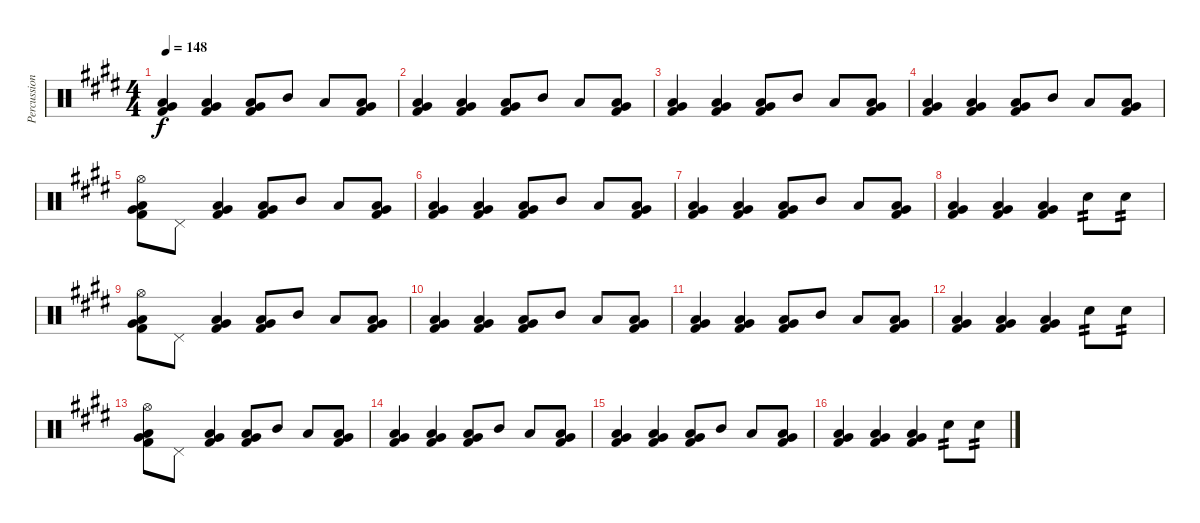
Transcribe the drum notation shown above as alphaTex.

\track ("Percussion" "Percussion") {instrument percussion}
\staff {score}
\articulation defaults
\ts (4 4)
\tempo 148
\clef neutral
\ks e
("Low Floor Tom (hit)" "Very Low Tom (hit)" "Kick (hit) 2").4{dy f} ("Low Floor Tom (hit)" "Very Low Tom (hit)" "Kick (hit) 2").4 ("Low Floor Tom (hit)" "Very Low Tom (hit)" "Kick (hit) 2").8 "Mid Tom (hit)".8 "Low Tom (hit)".8 ("Low Floor Tom (hit)" "Very Low Tom (hit)" "Kick (hit) 2").8 |
("Low Floor Tom (hit)" "Very Low Tom (hit)" "Kick (hit) 2").4 ("Low Floor Tom (hit)" "Very Low Tom (hit)" "Kick (hit) 2").4 ("Low Floor Tom (hit)" "Very Low Tom (hit)" "Kick (hit) 2").8 "Mid Tom (hit)".8 "Low Tom (hit)".8 ("Low Floor Tom (hit)" "Very Low Tom (hit)" "Kick (hit) 2").8 |
("Low Floor Tom (hit)" "Very Low Tom (hit)" "Kick (hit) 2").4 ("Low Floor Tom (hit)" "Very Low Tom (hit)" "Kick (hit) 2").4 ("Low Floor Tom (hit)" "Very Low Tom (hit)" "Kick (hit) 2").8 "Mid Tom (hit)".8 "Low Tom (hit)".8 ("Low Floor Tom (hit)" "Very Low Tom (hit)" "Kick (hit) 2").8 |
("Low Floor Tom (hit)" "Very Low Tom (hit)" "Kick (hit) 2").4 ("Low Floor Tom (hit)" "Very Low Tom (hit)" "Kick (hit) 2").4 ("Low Floor Tom (hit)" "Very Low Tom (hit)" "Kick (hit) 2").8 "Mid Tom (hit)".8 "Low Tom (hit)".8 ("Low Floor Tom (hit)" "Very Low Tom (hit)" "Kick (hit) 2").8 |
("Hi-Hat (open)" "Low Floor Tom (hit)" "Very Low Tom (hit)" "Kick (hit) 2").8 "Pedal Hi-Hat (hit)".8 ("Low Floor Tom (hit)" "Very Low Tom (hit)" "Kick (hit) 2").4 ("Low Floor Tom (hit)" "Very Low Tom (hit)" "Kick (hit) 2").8 "Mid Tom (hit)".8 "Low Tom (hit)".8 ("Low Floor Tom (hit)" "Very Low Tom (hit)" "Kick (hit) 2").8 |
("Low Floor Tom (hit)" "Very Low Tom (hit)" "Kick (hit) 2").4 ("Low Floor Tom (hit)" "Very Low Tom (hit)" "Kick (hit) 2").4 ("Low Floor Tom (hit)" "Very Low Tom (hit)" "Kick (hit) 2").8 "Mid Tom (hit)".8 "Low Tom (hit)".8 ("Low Floor Tom (hit)" "Very Low Tom (hit)" "Kick (hit) 2").8 |
("Low Floor Tom (hit)" "Very Low Tom (hit)" "Kick (hit) 2").4 ("Low Floor Tom (hit)" "Very Low Tom (hit)" "Kick (hit) 2").4 ("Low Floor Tom (hit)" "Very Low Tom (hit)" "Kick (hit) 2").8 "Mid Tom (hit)".8 "Low Tom (hit)".8 ("Low Floor Tom (hit)" "Very Low Tom (hit)" "Kick (hit) 2").8 |
("Low Floor Tom (hit)" "Very Low Tom (hit)" "Kick (hit) 2").4 ("Low Floor Tom (hit)" "Very Low Tom (hit)" "Kick (hit) 2").4 ("Low Floor Tom (hit)" "Very Low Tom (hit)" "Kick (hit) 2").4 "Snare (hit) 2".8{tp 2} "Snare (hit) 2".8{tp 2} |
("Hi-Hat (open)" "Low Floor Tom (hit)" "Very Low Tom (hit)" "Kick (hit) 2").8 "Pedal Hi-Hat (hit)".8 ("Low Floor Tom (hit)" "Very Low Tom (hit)" "Kick (hit) 2").4 ("Low Floor Tom (hit)" "Very Low Tom (hit)" "Kick (hit) 2").8 "Mid Tom (hit)".8 "Low Tom (hit)".8 ("Low Floor Tom (hit)" "Very Low Tom (hit)" "Kick (hit) 2").8 |
("Low Floor Tom (hit)" "Very Low Tom (hit)" "Kick (hit) 2").4 ("Low Floor Tom (hit)" "Very Low Tom (hit)" "Kick (hit) 2").4 ("Low Floor Tom (hit)" "Very Low Tom (hit)" "Kick (hit) 2").8 "Mid Tom (hit)".8 "Low Tom (hit)".8 ("Low Floor Tom (hit)" "Very Low Tom (hit)" "Kick (hit) 2").8 |
("Low Floor Tom (hit)" "Very Low Tom (hit)" "Kick (hit) 2").4 ("Low Floor Tom (hit)" "Very Low Tom (hit)" "Kick (hit) 2").4 ("Low Floor Tom (hit)" "Very Low Tom (hit)" "Kick (hit) 2").8 "Mid Tom (hit)".8 "Low Tom (hit)".8 ("Low Floor Tom (hit)" "Very Low Tom (hit)" "Kick (hit) 2").8 |
("Low Floor Tom (hit)" "Very Low Tom (hit)" "Kick (hit) 2").4 ("Low Floor Tom (hit)" "Very Low Tom (hit)" "Kick (hit) 2").4 ("Low Floor Tom (hit)" "Very Low Tom (hit)" "Kick (hit) 2").4 "Snare (hit) 2".8{tp 2} "Snare (hit) 2".8{tp 2} |
("Hi-Hat (open)" "Low Floor Tom (hit)" "Very Low Tom (hit)" "Kick (hit) 2").8 "Pedal Hi-Hat (hit)".8 ("Low Floor Tom (hit)" "Very Low Tom (hit)" "Kick (hit) 2").4 ("Low Floor Tom (hit)" "Very Low Tom (hit)" "Kick (hit) 2").8 "Mid Tom (hit)".8 "Low Tom (hit)".8 ("Low Floor Tom (hit)" "Very Low Tom (hit)" "Kick (hit) 2").8 |
("Low Floor Tom (hit)" "Very Low Tom (hit)" "Kick (hit) 2").4 ("Low Floor Tom (hit)" "Very Low Tom (hit)" "Kick (hit) 2").4 ("Low Floor Tom (hit)" "Very Low Tom (hit)" "Kick (hit) 2").8 "Mid Tom (hit)".8 "Low Tom (hit)".8 ("Low Floor Tom (hit)" "Very Low Tom (hit)" "Kick (hit) 2").8 |
("Low Floor Tom (hit)" "Very Low Tom (hit)" "Kick (hit) 2").4 ("Low Floor Tom (hit)" "Very Low Tom (hit)" "Kick (hit) 2").4 ("Low Floor Tom (hit)" "Very Low Tom (hit)" "Kick (hit) 2").8 "Mid Tom (hit)".8 "Low Tom (hit)".8 ("Low Floor Tom (hit)" "Very Low Tom (hit)" "Kick (hit) 2").8 |
("Low Floor Tom (hit)" "Very Low Tom (hit)" "Kick (hit) 2").4 ("Low Floor Tom (hit)" "Very Low Tom (hit)" "Kick (hit) 2").4 ("Low Floor Tom (hit)" "Very Low Tom (hit)" "Kick (hit) 2").4 "Snare (hit) 2".8{tp 2} "Snare (hit) 2".8{tp 2}
